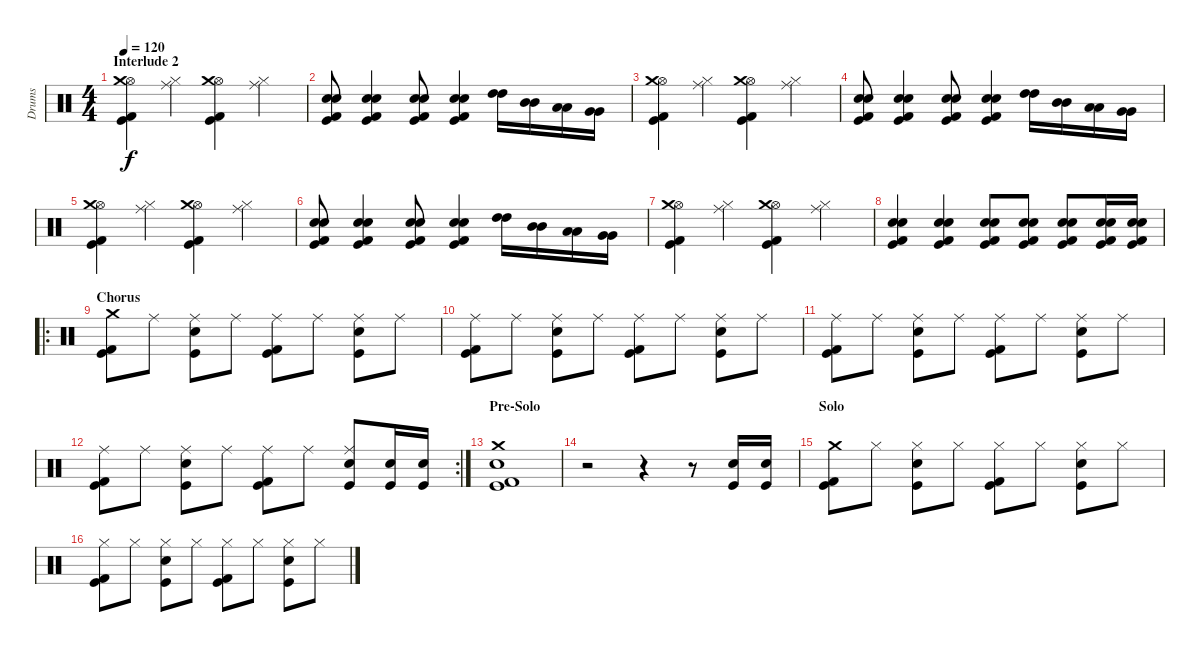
\track ("Drums" "Drums") {instrument percussion}
\staff {score}
\articulation defaults
\ts (4 4)
\section ("" "Interlude 2")
\tempo 120
\clef neutral
\ks c
("Hi-Hat (open)" "Kick (hit)" "Kick (hit) 2" "Crash medium (hit)").4{dy f} ("Ride (middle)" "Hi-Hat (closed)").4 ("Hi-Hat (open)" "Kick (hit)" "Kick (hit) 2" "Crash medium (hit)").4 ("Ride (middle)" "Hi-Hat (closed)").4 |
("Kick (hit)" "Kick (hit) 2" "Snare (hit) 2" "Electric Snare (hit)").8 ("Kick (hit)" "Kick (hit) 2" "Snare (hit) 2" "Electric Snare (hit)").4 ("Kick (hit)" "Kick (hit) 2" "Snare (hit) 2" "Electric Snare (hit)").8 ("Kick (hit)" "Kick (hit) 2" "Snare (hit) 2" "Electric Snare (hit)").4 ("High Tom (hit)" "High Tom (hit)").16 ("Mid Tom (hit)" "Mid Tom (hit)").16 ("Low Tom (hit)" "Low Tom (hit)").16 ("Very Low Tom (hit)" "Very Low Tom (hit)").16 |
("Hi-Hat (open)" "Kick (hit)" "Kick (hit) 2" "Crash medium (hit)").4 ("Ride (middle)" "Hi-Hat (closed)").4 ("Hi-Hat (open)" "Kick (hit)" "Kick (hit) 2" "Crash medium (hit)").4 ("Ride (middle)" "Hi-Hat (closed)").4 |
("Kick (hit)" "Kick (hit) 2" "Snare (hit) 2" "Electric Snare (hit)").8 ("Kick (hit)" "Kick (hit) 2" "Snare (hit) 2" "Electric Snare (hit)").4 ("Kick (hit)" "Kick (hit) 2" "Snare (hit) 2" "Electric Snare (hit)").8 ("Kick (hit)" "Kick (hit) 2" "Snare (hit) 2" "Electric Snare (hit)").4 ("High Tom (hit)" "High Tom (hit)").16 ("Mid Tom (hit)" "Mid Tom (hit)").16 ("Low Tom (hit)" "Low Tom (hit)").16 ("Very Low Tom (hit)" "Very Low Tom (hit)").16 |
("Hi-Hat (open)" "Kick (hit)" "Kick (hit) 2" "Crash medium (hit)").4 ("Ride (middle)" "Hi-Hat (closed)").4 ("Hi-Hat (open)" "Kick (hit)" "Kick (hit) 2" "Crash medium (hit)").4 ("Ride (middle)" "Hi-Hat (closed)").4 |
("Kick (hit)" "Kick (hit) 2" "Snare (hit) 2" "Electric Snare (hit)").8 ("Kick (hit)" "Kick (hit) 2" "Snare (hit) 2" "Electric Snare (hit)").4 ("Kick (hit)" "Kick (hit) 2" "Snare (hit) 2" "Electric Snare (hit)").8 ("Kick (hit)" "Kick (hit) 2" "Snare (hit) 2" "Electric Snare (hit)").4 ("High Tom (hit)" "High Tom (hit)").16 ("Mid Tom (hit)" "Mid Tom (hit)").16 ("Low Tom (hit)" "Low Tom (hit)").16 ("Very Low Tom (hit)" "Very Low Tom (hit)").16 |
("Hi-Hat (open)" "Kick (hit)" "Kick (hit) 2" "Crash medium (hit)").4 ("Ride (middle)" "Hi-Hat (closed)").4 ("Hi-Hat (open)" "Kick (hit)" "Kick (hit) 2" "Crash medium (hit)").4 ("Ride (middle)" "Hi-Hat (closed)").4 |
("Kick (hit)" "Kick (hit) 2" "Snare (hit) 2" "Electric Snare (hit)").4 ("Kick (hit)" "Kick (hit) 2" "Snare (hit) 2" "Electric Snare (hit)").4 ("Kick (hit)" "Kick (hit) 2" "Snare (hit) 2" "Electric Snare (hit)").8 ("Kick (hit)" "Kick (hit) 2" "Snare (hit) 2" "Electric Snare (hit)").8 ("Kick (hit)" "Kick (hit) 2" "Snare (hit) 2" "Electric Snare (hit)").8 ("Kick (hit)" "Kick (hit) 2" "Snare (hit) 2" "Electric Snare (hit)").16 ("Kick (hit)" "Kick (hit) 2" "Snare (hit) 2" "Electric Snare (hit)").16 |
\ro
\section ("" "Chorus")
("Kick (hit)" "Kick (hit) 2" "Crash medium (hit)").8 "Ride (middle)".8 ("Ride (middle)" "Kick (hit)" "Snare (hit) 2").8 "Ride (middle)".8 ("Ride (middle)" "Kick (hit)" "Kick (hit) 2").8 "Ride (middle)".8 ("Ride (middle)" "Kick (hit)" "Snare (hit) 2").8 "Ride (middle)".8 |
("Ride (middle)" "Kick (hit)" "Kick (hit) 2").8 "Ride (middle)".8 ("Ride (middle)" "Kick (hit)" "Snare (hit) 2").8 "Ride (middle)".8 ("Ride (middle)" "Kick (hit)" "Kick (hit) 2").8 "Ride (middle)".8 ("Ride (middle)" "Kick (hit)" "Snare (hit) 2").8 "Ride (middle)".8 |
("Ride (middle)" "Kick (hit)" "Kick (hit) 2").8 "Ride (middle)".8 ("Ride (middle)" "Kick (hit)" "Snare (hit) 2").8 "Ride (middle)".8 ("Ride (middle)" "Kick (hit)" "Kick (hit) 2").8 "Ride (middle)".8 ("Ride (middle)" "Kick (hit)" "Snare (hit) 2").8 "Ride (middle)".8 |
\rc 2
("Ride (middle)" "Kick (hit)" "Kick (hit) 2").8 "Ride (middle)".8 ("Ride (middle)" "Kick (hit)" "Snare (hit) 2").8 "Ride (middle)".8 ("Ride (middle)" "Kick (hit)" "Kick (hit) 2").8 "Ride (middle)".8 ("Ride (middle)" "Kick (hit)" "Snare (hit) 2").8 ("Kick (hit)" "Snare (hit) 2").16 ("Kick (hit)" "Snare (hit) 2").16 |
\section ("" "Pre-Solo")
("Kick (hit)" "Kick (hit) 2" "Snare (hit) 2" "Crash medium (hit)").1 |
r.2 r.4 r.8 ("Kick (hit)" "Snare (hit) 2").16 ("Kick (hit)" "Snare (hit) 2").16 |
\section ("" "Solo")
("Kick (hit)" "Kick (hit) 2" "Crash medium (hit)").8 "Hi-Hat (closed)".8 ("Hi-Hat (closed)" "Kick (hit)" "Snare (hit) 2").8 "Hi-Hat (closed)".8 ("Hi-Hat (closed)" "Kick (hit)" "Kick (hit) 2").8 "Hi-Hat (closed)".8 ("Hi-Hat (closed)" "Kick (hit)" "Snare (hit) 2").8 "Hi-Hat (closed)".8 |
("Hi-Hat (closed)" "Kick (hit)" "Kick (hit) 2").8 "Hi-Hat (closed)".8 ("Hi-Hat (closed)" "Kick (hit)" "Snare (hit) 2").8 "Hi-Hat (closed)".8 ("Hi-Hat (closed)" "Kick (hit)" "Kick (hit) 2").8 "Hi-Hat (closed)".8 ("Hi-Hat (closed)" "Kick (hit)" "Snare (hit) 2").8 "Hi-Hat (closed)".8
